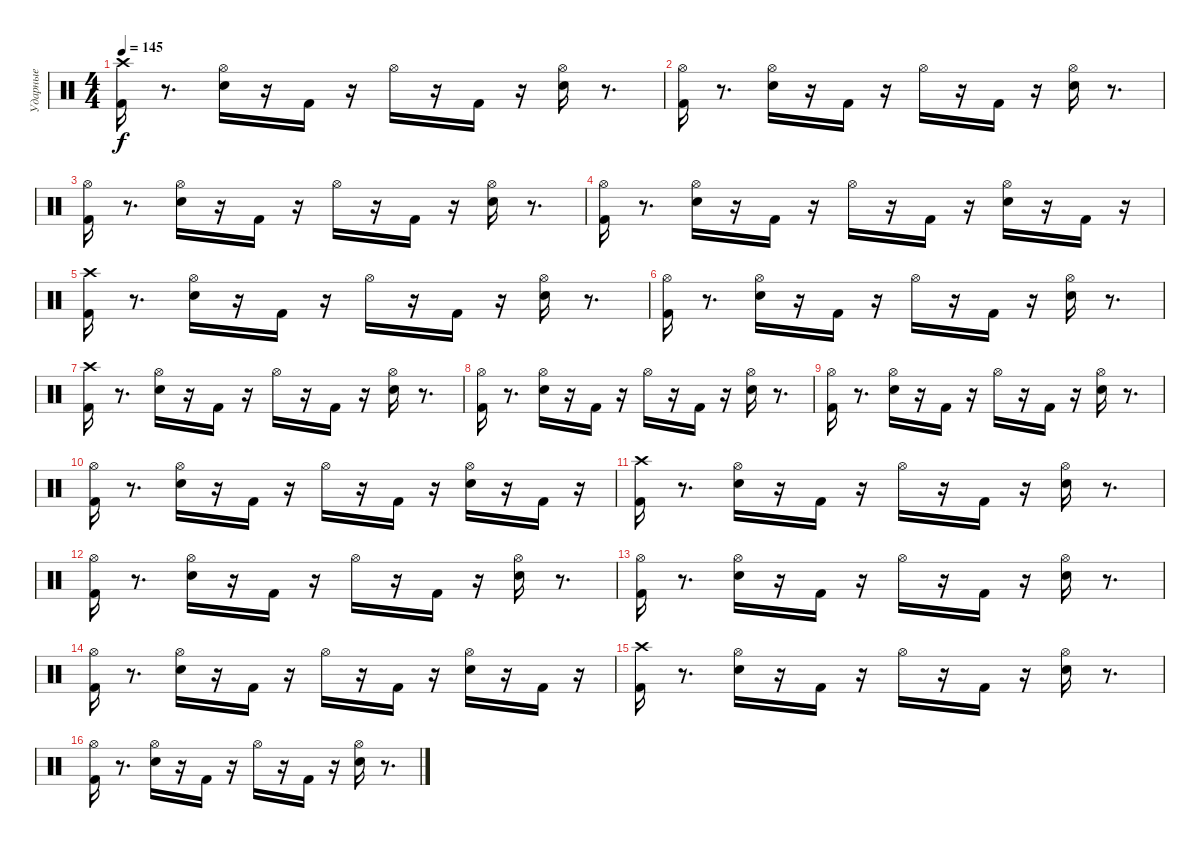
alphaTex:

\track ("Ударные" "Ударные") {instrument percussion}
\staff {score}
\articulation defaults
\ts (4 4)
\tempo 145
\clef neutral
\ks c
("Crash high (hit)" "Kick (hit) 2").16{dy f} r.8{d} ("Hi-Hat (open)" "Electric Snare (hit)").16 r.16 "Kick (hit) 2".16 r.16 "Hi-Hat (open)".16 r.16 "Kick (hit) 2".16 r.16 ("Hi-Hat (open)" "Electric Snare (hit)").16 r.8{d} |
("Hi-Hat (open)" "Kick (hit) 2").16 r.8{d} ("Hi-Hat (open)" "Electric Snare (hit)").16 r.16 "Kick (hit) 2".16 r.16 "Hi-Hat (open)".16 r.16 "Kick (hit) 2".16 r.16 ("Hi-Hat (open)" "Electric Snare (hit)").16 r.8{d} |
("Kick (hit) 2" "Hi-Hat (open)").16 r.8{d} ("Hi-Hat (open)" "Electric Snare (hit)").16 r.16 "Kick (hit) 2".16 r.16 "Hi-Hat (open)".16 r.16 "Kick (hit) 2".16 r.16 ("Hi-Hat (open)" "Electric Snare (hit)").16 r.8{d} |
("Hi-Hat (open)" "Kick (hit) 2").16 r.8{d} ("Hi-Hat (open)" "Electric Snare (hit)").16 r.16 "Kick (hit) 2".16 r.16 "Hi-Hat (open)".16 r.16 "Kick (hit) 2".16 r.16 ("Hi-Hat (open)" "Electric Snare (hit)").16 r.16 "Kick (hit) 2".16 r.16 |
("Crash high (hit)" "Kick (hit) 2").16 r.8{d} ("Hi-Hat (open)" "Electric Snare (hit)").16 r.16 "Kick (hit) 2".16 r.16 "Hi-Hat (open)".16 r.16 "Kick (hit) 2".16 r.16 ("Hi-Hat (open)" "Electric Snare (hit)").16 r.8{d} |
("Hi-Hat (open)" "Kick (hit) 2").16 r.8{d} ("Electric Snare (hit)" "Hi-Hat (open)").16 r.16 "Kick (hit) 2".16 r.16 "Hi-Hat (open)".16 r.16 "Kick (hit) 2".16 r.16 ("Electric Snare (hit)" "Hi-Hat (open)").16 r.8{d} |
("Crash high (hit)" "Kick (hit) 2").16 r.8{d} ("Hi-Hat (open)" "Electric Snare (hit)").16 r.16 "Kick (hit) 2".16 r.16 "Hi-Hat (open)".16 r.16 "Kick (hit) 2".16 r.16 ("Electric Snare (hit)" "Hi-Hat (open)").16 r.8{d} |
("Hi-Hat (open)" "Kick (hit) 2").16 r.8{d} ("Hi-Hat (open)" "Electric Snare (hit)").16 r.16 "Kick (hit) 2".16 r.16 "Hi-Hat (open)".16 r.16 "Kick (hit) 2".16 r.16 ("Hi-Hat (open)" "Electric Snare (hit)").16 r.8{d} |
("Kick (hit) 2" "Hi-Hat (open)").16 r.8{d} ("Electric Snare (hit)" "Hi-Hat (open)").16 r.16 "Kick (hit) 2".16 r.16 "Hi-Hat (open)".16 r.16 "Kick (hit) 2".16 r.16 ("Hi-Hat (open)" "Electric Snare (hit)").16 r.8{d} |
("Kick (hit) 2" "Hi-Hat (open)").16 r.8{d} ("Electric Snare (hit)" "Hi-Hat (open)").16 r.16 "Kick (hit) 2".16 r.16 "Hi-Hat (open)".16 r.16 "Kick (hit) 2".16 r.16 ("Electric Snare (hit)" "Hi-Hat (open)").16 r.16 "Kick (hit) 2".16 r.16 |
("Crash high (hit)" "Kick (hit) 2").16 r.8{d} ("Hi-Hat (open)" "Electric Snare (hit)").16 r.16 "Kick (hit) 2".16 r.16 "Hi-Hat (open)".16 r.16 "Kick (hit) 2".16 r.16 ("Hi-Hat (open)" "Electric Snare (hit)").16 r.8{d} |
("Hi-Hat (open)" "Kick (hit) 2").16 r.8{d} ("Electric Snare (hit)" "Hi-Hat (open)").16 r.16 "Kick (hit) 2".16 r.16 "Hi-Hat (open)".16 r.16 "Kick (hit) 2".16 r.16 ("Electric Snare (hit)" "Hi-Hat (open)").16 r.8{d} |
("Hi-Hat (open)" "Kick (hit) 2").16 r.8{d} ("Electric Snare (hit)" "Hi-Hat (open)").16 r.16 "Kick (hit) 2".16 r.16 "Hi-Hat (open)".16 r.16 "Kick (hit) 2".16 r.16 ("Electric Snare (hit)" "Hi-Hat (open)").16 r.8{d} |
("Hi-Hat (open)" "Kick (hit) 2").16 r.8{d} ("Hi-Hat (open)" "Electric Snare (hit)").16 r.16 "Kick (hit) 2".16 r.16 "Hi-Hat (open)".16 r.16 "Kick (hit) 2".16 r.16 ("Hi-Hat (open)" "Electric Snare (hit)").16 r.16 "Kick (hit) 2".16 r.16 |
("Crash high (hit)" "Kick (hit) 2").16 r.8{d} ("Hi-Hat (open)" "Electric Snare (hit)").16 r.16 "Kick (hit) 2".16 r.16 "Hi-Hat (open)".16 r.16 "Kick (hit) 2".16 r.16 ("Electric Snare (hit)" "Hi-Hat (open)").16 r.8{d} |
("Hi-Hat (open)" "Kick (hit) 2").16 r.8{d} ("Hi-Hat (open)" "Electric Snare (hit)").16 r.16 "Kick (hit) 2".16 r.16 "Hi-Hat (open)".16 r.16 "Kick (hit) 2".16 r.16 ("Electric Snare (hit)" "Hi-Hat (open)").16 r.8{d}
